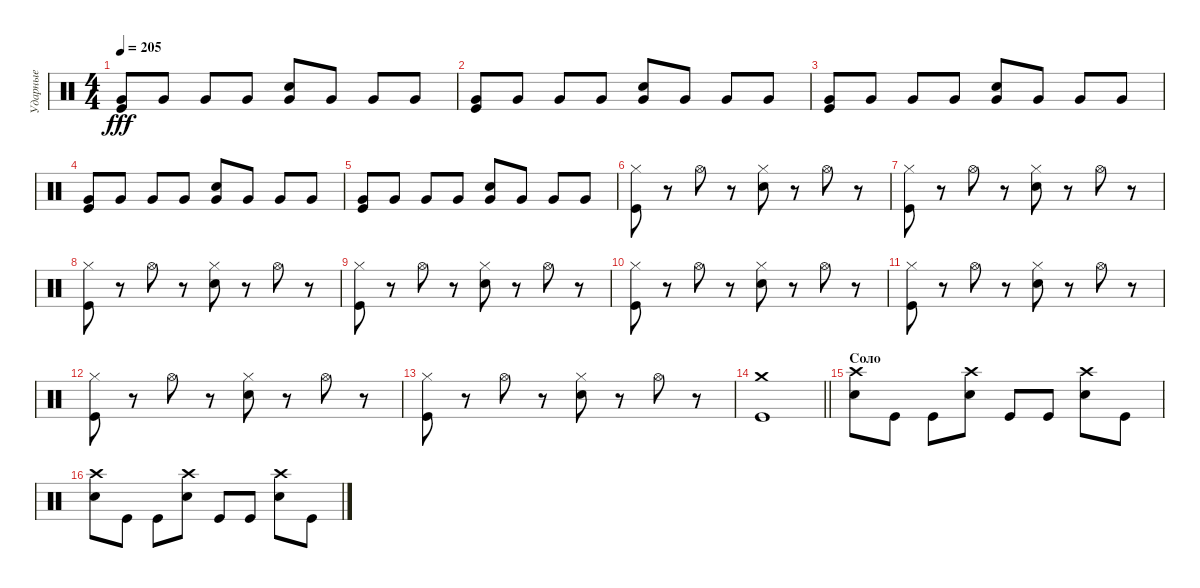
\track ("Ударные" "Ударные") {instrument percussion}
\staff {score}
\articulation defaults
\ts (4 4)
\tempo 205
\clef neutral
\ks c
("Very Low Tom (hit)" "Kick (hit)").8{dy fff} "Very Low Tom (hit)".8 "Very Low Tom (hit)".8 "Very Low Tom (hit)".8 ("Very Low Tom (hit)" "Electric Snare (hit)").8 "Very Low Tom (hit)".8 "Very Low Tom (hit)".8 "Very Low Tom (hit)".8 |
("Very Low Tom (hit)" "Kick (hit)").8 "Very Low Tom (hit)".8 "Very Low Tom (hit)".8 "Very Low Tom (hit)".8 ("Very Low Tom (hit)" "Electric Snare (hit)").8 "Very Low Tom (hit)".8 "Very Low Tom (hit)".8 "Very Low Tom (hit)".8 |
("Very Low Tom (hit)" "Kick (hit)").8 "Very Low Tom (hit)".8 "Very Low Tom (hit)".8 "Very Low Tom (hit)".8 ("Very Low Tom (hit)" "Electric Snare (hit)").8 "Very Low Tom (hit)".8 "Very Low Tom (hit)".8 "Very Low Tom (hit)".8 |
("Very Low Tom (hit)" "Kick (hit)").8 "Very Low Tom (hit)".8 "Very Low Tom (hit)".8 "Very Low Tom (hit)".8 ("Very Low Tom (hit)" "Electric Snare (hit)").8 "Very Low Tom (hit)".8 "Very Low Tom (hit)".8 "Very Low Tom (hit)".8 |
("Very Low Tom (hit)" "Kick (hit)").8 "Very Low Tom (hit)".8 "Very Low Tom (hit)".8 "Very Low Tom (hit)".8 ("Very Low Tom (hit)" "Electric Snare (hit)").8 "Very Low Tom (hit)".8 "Very Low Tom (hit)".8 "Very Low Tom (hit)".8 |
("Hi-Hat (closed)" "Kick (hit)").8 r.8 "Hi-Hat (open)".8 r.8 ("Hi-Hat (closed)" "Electric Snare (hit)").8 r.8 "Hi-Hat (open)".8 r.8 |
("Hi-Hat (closed)" "Kick (hit)").8 r.8 "Hi-Hat (open)".8 r.8 ("Hi-Hat (closed)" "Electric Snare (hit)").8 r.8 "Hi-Hat (open)".8 r.8 |
("Hi-Hat (closed)" "Kick (hit)").8 r.8 "Hi-Hat (open)".8 r.8 ("Hi-Hat (closed)" "Electric Snare (hit)").8 r.8 "Hi-Hat (open)".8 r.8 |
("Hi-Hat (closed)" "Kick (hit)").8 r.8 "Hi-Hat (open)".8 r.8 ("Hi-Hat (closed)" "Electric Snare (hit)").8 r.8 "Hi-Hat (open)".8 r.8 |
("Hi-Hat (closed)" "Kick (hit)").8 r.8 "Hi-Hat (open)".8 r.8 ("Hi-Hat (closed)" "Electric Snare (hit)").8 r.8 "Hi-Hat (open)".8 r.8 |
("Hi-Hat (closed)" "Kick (hit)").8 r.8 "Hi-Hat (open)".8 r.8 ("Hi-Hat (closed)" "Electric Snare (hit)").8 r.8 "Hi-Hat (open)".8 r.8 |
("Hi-Hat (closed)" "Kick (hit)").8 r.8 "Hi-Hat (open)".8 r.8 ("Hi-Hat (closed)" "Electric Snare (hit)").8 r.8 "Hi-Hat (open)".8 r.8 |
("Hi-Hat (closed)" "Kick (hit)").8 r.8 "Hi-Hat (open)".8 r.8 ("Hi-Hat (closed)" "Electric Snare (hit)").8 r.8 "Hi-Hat (open)".8 r.8 |
\barLineRight lightlight
("Kick (hit)" "Crash medium (hit)").1 |
\section ("" "Соло")
("Crash high (hit)" "Electric Snare (hit)").8 "Kick (hit)".8 "Kick (hit)".8 ("Crash high (hit)" "Electric Snare (hit)").8 "Kick (hit)".8 "Kick (hit)".8 ("Crash high (hit)" "Electric Snare (hit)").8 "Kick (hit)".8 |
("Crash high (hit)" "Electric Snare (hit)").8 "Kick (hit)".8 "Kick (hit)".8 ("Crash high (hit)" "Electric Snare (hit)").8 "Kick (hit)".8 "Kick (hit)".8 ("Crash high (hit)" "Electric Snare (hit)").8 "Kick (hit)".8
